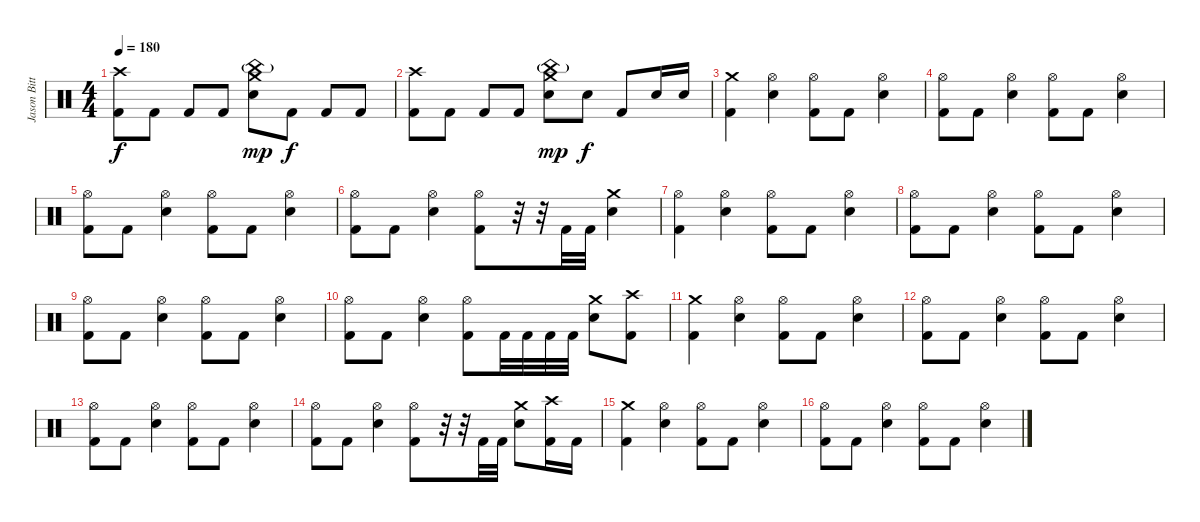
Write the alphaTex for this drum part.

\track ("Jason Bittner" "Jason Bitt") {instrument percussion}
\staff {score}
\articulation defaults
\ts (4 4)
\tempo 180
\clef neutral
\ks c
("Crash high (hit)" "Kick (hit) 2").8{dy f} "Kick (hit) 2".8 "Kick (hit) 2".8 "Kick (hit) 2".8 ("China (hit)"{g} "Crash medium (hit)" "Electric Snare (hit)").8{dy mp} "Kick (hit) 2".8{dy f} "Kick (hit) 2".8 "Kick (hit) 2".8 |
("Crash high (hit)" "Kick (hit) 2").8 "Kick (hit) 2".8 "Kick (hit) 2".8 "Kick (hit) 2".8 ("China (hit)"{g} "Crash medium (hit)" "Electric Snare (hit)").8{dy mp} "Electric Snare (hit)".8{dy f} "Kick (hit) 2".8 "Electric Snare (hit)".16 "Electric Snare (hit)".16 |
("Crash medium (hit)" "Kick (hit) 2").4 ("Hi-Hat (open)" "Electric Snare (hit)").4 ("Hi-Hat (open)" "Kick (hit) 2").8 "Kick (hit) 2".8 ("Hi-Hat (open)" "Electric Snare (hit)").4 |
("Hi-Hat (open)" "Kick (hit) 2").8 "Kick (hit) 2".8 ("Hi-Hat (open)" "Electric Snare (hit)").4 ("Hi-Hat (open)" "Kick (hit) 2").8 "Kick (hit) 2".8 ("Hi-Hat (open)" "Electric Snare (hit)").4 |
("Hi-Hat (open)" "Kick (hit) 2").8 "Kick (hit) 2".8 ("Hi-Hat (open)" "Electric Snare (hit)").4 ("Hi-Hat (open)" "Kick (hit) 2").8 "Kick (hit) 2".8 ("Hi-Hat (open)" "Electric Snare (hit)").4 |
("Hi-Hat (open)" "Kick (hit) 2").8 "Kick (hit) 2".8 ("Hi-Hat (open)" "Electric Snare (hit)").4 ("Hi-Hat (open)" "Kick (hit) 2").8 r.32 r.32 "Kick (hit) 2".32 "Kick (hit) 2".32 ("Crash medium (hit)" "Electric Snare (hit)").4 |
("Hi-Hat (open)" "Kick (hit) 2").4 ("Hi-Hat (open)" "Electric Snare (hit)").4 ("Hi-Hat (open)" "Kick (hit) 2").8 "Kick (hit) 2".8 ("Hi-Hat (open)" "Electric Snare (hit)").4 |
("Hi-Hat (open)" "Kick (hit) 2").8 "Kick (hit) 2".8 ("Hi-Hat (open)" "Electric Snare (hit)").4 ("Hi-Hat (open)" "Kick (hit) 2").8 "Kick (hit) 2".8 ("Hi-Hat (open)" "Electric Snare (hit)").4 |
("Hi-Hat (open)" "Kick (hit) 2").8 "Kick (hit) 2".8 ("Hi-Hat (open)" "Electric Snare (hit)").4 ("Hi-Hat (open)" "Kick (hit) 2").8 "Kick (hit) 2".8 ("Hi-Hat (open)" "Electric Snare (hit)").4 |
("Hi-Hat (open)" "Kick (hit) 2").8 "Kick (hit) 2".8 ("Hi-Hat (open)" "Electric Snare (hit)").4 ("Hi-Hat (open)" "Kick (hit) 2").8 "Kick (hit) 2".32 "Kick (hit) 2".32 "Kick (hit) 2".32 "Kick (hit) 2".32 ("Crash medium (hit)" "Electric Snare (hit)").8 ("Crash high (hit)" "Kick (hit) 2").8 |
("Crash medium (hit)" "Kick (hit) 2").4 ("Hi-Hat (open)" "Electric Snare (hit)").4 ("Hi-Hat (open)" "Kick (hit) 2").8 "Kick (hit) 2".8 ("Hi-Hat (open)" "Electric Snare (hit)").4 |
("Hi-Hat (open)" "Kick (hit) 2").8 "Kick (hit) 2".8 ("Hi-Hat (open)" "Electric Snare (hit)").4 ("Hi-Hat (open)" "Kick (hit) 2").8 "Kick (hit) 2".8 ("Hi-Hat (open)" "Electric Snare (hit)").4 |
("Hi-Hat (open)" "Kick (hit) 2").8 "Kick (hit) 2".8 ("Hi-Hat (open)" "Electric Snare (hit)").4 ("Hi-Hat (open)" "Kick (hit) 2").8 "Kick (hit) 2".8 ("Hi-Hat (open)" "Electric Snare (hit)").4 |
("Hi-Hat (open)" "Kick (hit) 2").8 "Kick (hit) 2".8 ("Hi-Hat (open)" "Electric Snare (hit)").4 ("Hi-Hat (open)" "Kick (hit) 2").8 r.32 r.32 "Kick (hit) 2".32 "Kick (hit) 2".32 ("Crash medium (hit)" "Electric Snare (hit)").8 ("Crash high (hit)" "Kick (hit) 2").16 "Kick (hit) 2".16 |
("Crash medium (hit)" "Kick (hit) 2").4 ("Hi-Hat (open)" "Electric Snare (hit)").4 ("Hi-Hat (open)" "Kick (hit) 2").8 "Kick (hit) 2".8 ("Hi-Hat (open)" "Electric Snare (hit)").4 |
("Hi-Hat (open)" "Kick (hit) 2").8 "Kick (hit) 2".8 ("Hi-Hat (open)" "Electric Snare (hit)").4 ("Hi-Hat (open)" "Kick (hit) 2").8 "Kick (hit) 2".8 ("Hi-Hat (open)" "Electric Snare (hit)").4
